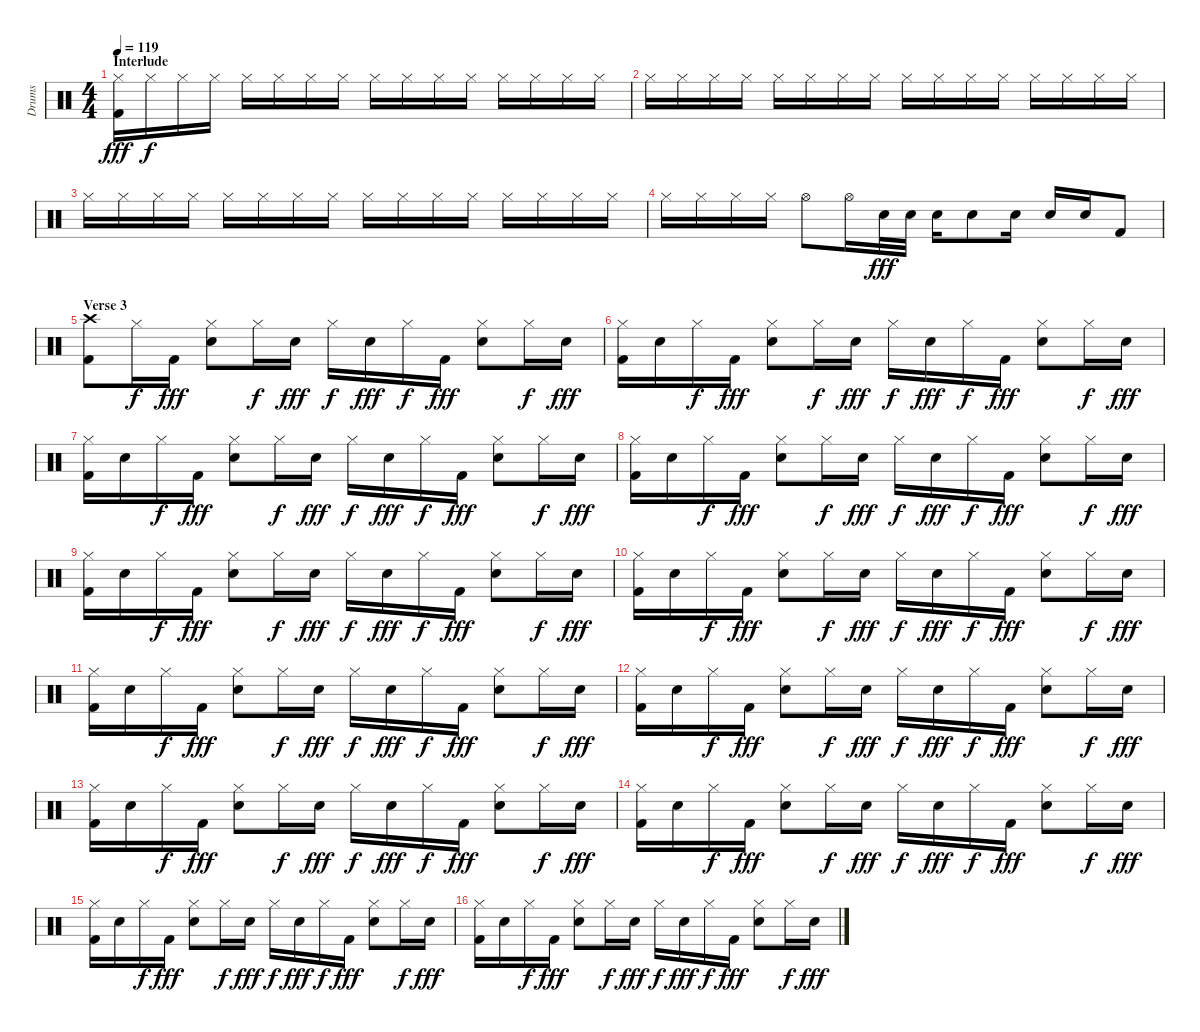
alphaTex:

\track ("Drums" "Drums") {instrument percussion}
\staff {score}
\articulation defaults
\ts (4 4)
\section ("" "Interlude")
\tempo 119
\clef neutral
\ks c
("Hi-Hat (closed)" "Kick (hit) 2").16{dy fff} "Hi-Hat (closed)".16{dy f} "Hi-Hat (closed)".16 "Hi-Hat (closed)".16 "Hi-Hat (closed)".16 "Hi-Hat (closed)".16 "Hi-Hat (closed)".16 "Hi-Hat (closed)".16 "Hi-Hat (closed)".16 "Hi-Hat (closed)".16 "Hi-Hat (closed)".16 "Hi-Hat (closed)".16 "Hi-Hat (closed)".16 "Hi-Hat (closed)".16 "Hi-Hat (closed)".16 "Hi-Hat (closed)".16 |
"Hi-Hat (closed)".16 "Hi-Hat (closed)".16 "Hi-Hat (closed)".16 "Hi-Hat (closed)".16 "Hi-Hat (closed)".16 "Hi-Hat (closed)".16 "Hi-Hat (closed)".16 "Hi-Hat (closed)".16 "Hi-Hat (closed)".16 "Hi-Hat (closed)".16 "Hi-Hat (closed)".16 "Hi-Hat (closed)".16 "Hi-Hat (closed)".16 "Hi-Hat (closed)".16 "Hi-Hat (closed)".16 "Hi-Hat (closed)".16 |
"Hi-Hat (closed)".16 "Hi-Hat (closed)".16 "Hi-Hat (closed)".16 "Hi-Hat (closed)".16 "Hi-Hat (closed)".16 "Hi-Hat (closed)".16 "Hi-Hat (closed)".16 "Hi-Hat (closed)".16 "Hi-Hat (closed)".16 "Hi-Hat (closed)".16 "Hi-Hat (closed)".16 "Hi-Hat (closed)".16 "Hi-Hat (closed)".16 "Hi-Hat (closed)".16 "Hi-Hat (closed)".16 "Hi-Hat (closed)".16 |
"Hi-Hat (closed)".16 "Hi-Hat (closed)".16 "Hi-Hat (closed)".16 "Hi-Hat (closed)".16 "Hi-Hat (open)".8 "Hi-Hat (open)".16 "Electric Snare (hit)".32{dy fff} "Electric Snare (hit)".32 "Electric Snare (hit)".16 "Electric Snare (hit)".8 "Electric Snare (hit)".16 "Electric Snare (hit)".16 "Electric Snare (hit)".16 "Kick (hit) 2".8 |
\section ("" "Verse 3")
("Crash high (hit)" "Kick (hit) 2").8 "Hi-Hat (closed)".16{dy f} "Kick (hit) 2".16{dy fff} ("Hi-Hat (closed)" "Electric Snare (hit)").8 "Hi-Hat (closed)".16{dy f} "Electric Snare (hit)".16{dy fff} "Hi-Hat (closed)".16{dy f} "Electric Snare (hit)".16{dy fff} "Hi-Hat (closed)".16{dy f} "Kick (hit) 2".16{dy fff} ("Hi-Hat (closed)" "Electric Snare (hit)").8 "Hi-Hat (closed)".16{dy f} "Electric Snare (hit)".16{dy fff} |
("Hi-Hat (closed)" "Kick (hit) 2").16 "Electric Snare (hit)".16 "Hi-Hat (closed)".16{dy f} "Kick (hit) 2".16{dy fff} ("Hi-Hat (closed)" "Electric Snare (hit)").8 "Hi-Hat (closed)".16{dy f} "Electric Snare (hit)".16{dy fff} "Hi-Hat (closed)".16{dy f} "Electric Snare (hit)".16{dy fff} "Hi-Hat (closed)".16{dy f} "Kick (hit) 2".16{dy fff} ("Hi-Hat (closed)" "Electric Snare (hit)").8 "Hi-Hat (closed)".16{dy f} "Electric Snare (hit)".16{dy fff} |
("Hi-Hat (closed)" "Kick (hit) 2").16 "Electric Snare (hit)".16 "Hi-Hat (closed)".16{dy f} "Kick (hit) 2".16{dy fff} ("Hi-Hat (closed)" "Electric Snare (hit)").8 "Hi-Hat (closed)".16{dy f} "Electric Snare (hit)".16{dy fff} "Hi-Hat (closed)".16{dy f} "Electric Snare (hit)".16{dy fff} "Hi-Hat (closed)".16{dy f} "Kick (hit) 2".16{dy fff} ("Hi-Hat (closed)" "Electric Snare (hit)").8 "Hi-Hat (closed)".16{dy f} "Electric Snare (hit)".16{dy fff} |
("Hi-Hat (closed)" "Kick (hit) 2").16 "Electric Snare (hit)".16 "Hi-Hat (closed)".16{dy f} "Kick (hit) 2".16{dy fff} ("Hi-Hat (closed)" "Electric Snare (hit)").8 "Hi-Hat (closed)".16{dy f} "Electric Snare (hit)".16{dy fff} "Hi-Hat (closed)".16{dy f} "Electric Snare (hit)".16{dy fff} "Hi-Hat (closed)".16{dy f} "Kick (hit) 2".16{dy fff} ("Hi-Hat (closed)" "Electric Snare (hit)").8 "Hi-Hat (closed)".16{dy f} "Electric Snare (hit)".16{dy fff} |
("Hi-Hat (closed)" "Kick (hit) 2").16 "Electric Snare (hit)".16 "Hi-Hat (closed)".16{dy f} "Kick (hit) 2".16{dy fff} ("Hi-Hat (closed)" "Electric Snare (hit)").8 "Hi-Hat (closed)".16{dy f} "Electric Snare (hit)".16{dy fff} "Hi-Hat (closed)".16{dy f} "Electric Snare (hit)".16{dy fff} "Hi-Hat (closed)".16{dy f} "Kick (hit) 2".16{dy fff} ("Hi-Hat (closed)" "Electric Snare (hit)").8 "Hi-Hat (closed)".16{dy f} "Electric Snare (hit)".16{dy fff} |
("Hi-Hat (closed)" "Kick (hit) 2").16 "Electric Snare (hit)".16 "Hi-Hat (closed)".16{dy f} "Kick (hit) 2".16{dy fff} ("Hi-Hat (closed)" "Electric Snare (hit)").8 "Hi-Hat (closed)".16{dy f} "Electric Snare (hit)".16{dy fff} "Hi-Hat (closed)".16{dy f} "Electric Snare (hit)".16{dy fff} "Hi-Hat (closed)".16{dy f} "Kick (hit) 2".16{dy fff} ("Hi-Hat (closed)" "Electric Snare (hit)").8 "Hi-Hat (closed)".16{dy f} "Electric Snare (hit)".16{dy fff} |
("Hi-Hat (closed)" "Kick (hit) 2").16 "Electric Snare (hit)".16 "Hi-Hat (closed)".16{dy f} "Kick (hit) 2".16{dy fff} ("Hi-Hat (closed)" "Electric Snare (hit)").8 "Hi-Hat (closed)".16{dy f} "Electric Snare (hit)".16{dy fff} "Hi-Hat (closed)".16{dy f} "Electric Snare (hit)".16{dy fff} "Hi-Hat (closed)".16{dy f} "Kick (hit) 2".16{dy fff} ("Hi-Hat (closed)" "Electric Snare (hit)").8 "Hi-Hat (closed)".16{dy f} "Electric Snare (hit)".16{dy fff} |
("Hi-Hat (closed)" "Kick (hit) 2").16 "Electric Snare (hit)".16 "Hi-Hat (closed)".16{dy f} "Kick (hit) 2".16{dy fff} ("Hi-Hat (closed)" "Electric Snare (hit)").8 "Hi-Hat (closed)".16{dy f} "Electric Snare (hit)".16{dy fff} "Hi-Hat (closed)".16{dy f} "Electric Snare (hit)".16{dy fff} "Hi-Hat (closed)".16{dy f} "Kick (hit) 2".16{dy fff} ("Hi-Hat (closed)" "Electric Snare (hit)").8 "Hi-Hat (closed)".16{dy f} "Electric Snare (hit)".16{dy fff} |
("Hi-Hat (closed)" "Kick (hit) 2").16 "Electric Snare (hit)".16 "Hi-Hat (closed)".16{dy f} "Kick (hit) 2".16{dy fff} ("Hi-Hat (closed)" "Electric Snare (hit)").8 "Hi-Hat (closed)".16{dy f} "Electric Snare (hit)".16{dy fff} "Hi-Hat (closed)".16{dy f} "Electric Snare (hit)".16{dy fff} "Hi-Hat (closed)".16{dy f} "Kick (hit) 2".16{dy fff} ("Hi-Hat (closed)" "Electric Snare (hit)").8 "Hi-Hat (closed)".16{dy f} "Electric Snare (hit)".16{dy fff} |
("Hi-Hat (closed)" "Kick (hit) 2").16 "Electric Snare (hit)".16 "Hi-Hat (closed)".16{dy f} "Kick (hit) 2".16{dy fff} ("Hi-Hat (closed)" "Electric Snare (hit)").8 "Hi-Hat (closed)".16{dy f} "Electric Snare (hit)".16{dy fff} "Hi-Hat (closed)".16{dy f} "Electric Snare (hit)".16{dy fff} "Hi-Hat (closed)".16{dy f} "Kick (hit) 2".16{dy fff} ("Hi-Hat (closed)" "Electric Snare (hit)").8 "Hi-Hat (closed)".16{dy f} "Electric Snare (hit)".16{dy fff} |
("Hi-Hat (closed)" "Kick (hit) 2").16 "Electric Snare (hit)".16 "Hi-Hat (closed)".16{dy f} "Kick (hit) 2".16{dy fff} ("Hi-Hat (closed)" "Electric Snare (hit)").8 "Hi-Hat (closed)".16{dy f} "Electric Snare (hit)".16{dy fff} "Hi-Hat (closed)".16{dy f} "Electric Snare (hit)".16{dy fff} "Hi-Hat (closed)".16{dy f} "Kick (hit) 2".16{dy fff} ("Hi-Hat (closed)" "Electric Snare (hit)").8 "Hi-Hat (closed)".16{dy f} "Electric Snare (hit)".16{dy fff} |
("Hi-Hat (closed)" "Kick (hit) 2").16 "Electric Snare (hit)".16 "Hi-Hat (closed)".16{dy f} "Kick (hit) 2".16{dy fff} ("Hi-Hat (closed)" "Electric Snare (hit)").8 "Hi-Hat (closed)".16{dy f} "Electric Snare (hit)".16{dy fff} "Hi-Hat (closed)".16{dy f} "Electric Snare (hit)".16{dy fff} "Hi-Hat (closed)".16{dy f} "Kick (hit) 2".16{dy fff} ("Hi-Hat (closed)" "Electric Snare (hit)").8 "Hi-Hat (closed)".16{dy f} "Electric Snare (hit)".16{dy fff}
